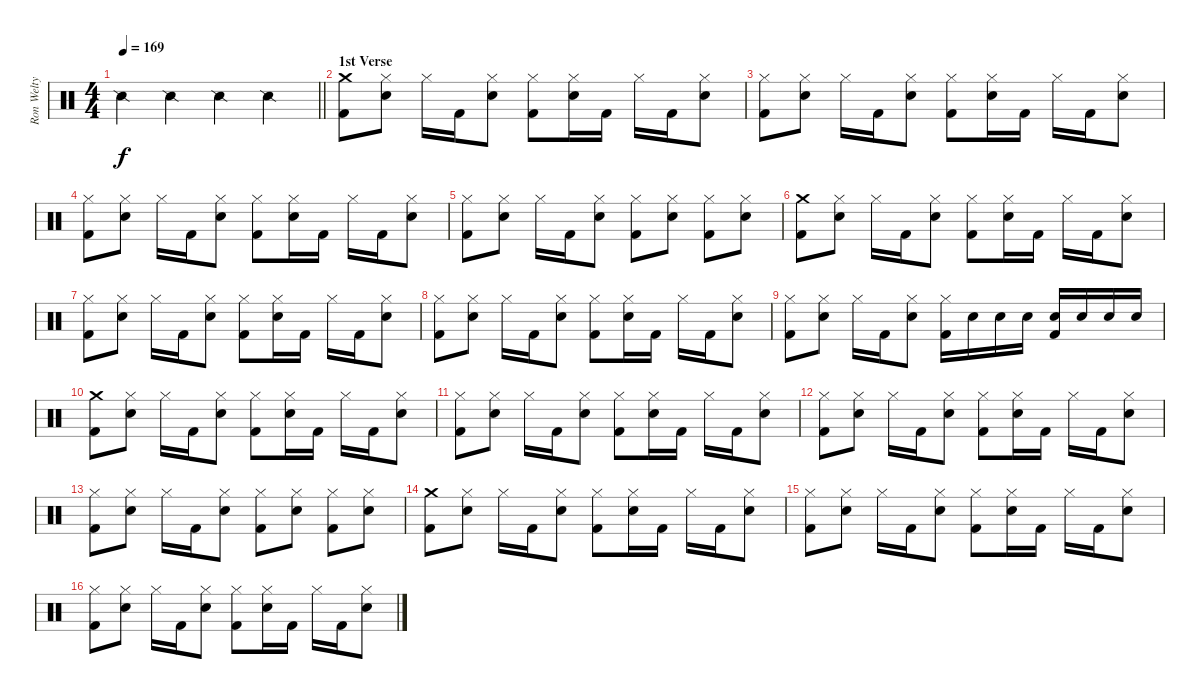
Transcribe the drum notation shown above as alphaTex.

\track ("Ron Welty - Drums" "Ron Welty ") {instrument percussion}
\staff {score}
\articulation defaults
\ts (4 4)
\tempo 169
\clef neutral
\barLineRight lightlight
\ks c "Snare (side stick) 2".4{dy f} "Snare (side stick) 2".4 "Snare (side stick) 2".4 "Snare (side stick) 2".4
|
\section ("" "1st Verse")
("Crash medium (hit)" "Kick (hit) 2").8 ("Hi-Hat (closed)" "Electric Snare (hit)").8 "Hi-Hat (closed)".16 "Kick (hit) 2".16 ("Hi-Hat (closed)" "Electric Snare (hit)").8 ("Hi-Hat (closed)" "Kick (hit) 2").8 ("Hi-Hat (closed)" "Electric Snare (hit)").16 "Kick (hit) 2".16 "Hi-Hat (closed)".16 "Kick (hit) 2".16 ("Hi-Hat (closed)" "Electric Snare (hit)").8 |
("Hi-Hat (closed)" "Kick (hit) 2").8 ("Hi-Hat (closed)" "Electric Snare (hit)").8 "Hi-Hat (closed)".16 "Kick (hit) 2".16 ("Hi-Hat (closed)" "Electric Snare (hit)").8 ("Hi-Hat (closed)" "Kick (hit) 2").8 ("Hi-Hat (closed)" "Electric Snare (hit)").16 "Kick (hit) 2".16 "Hi-Hat (closed)".16 "Kick (hit) 2".16 ("Hi-Hat (closed)" "Electric Snare (hit)").8 |
("Hi-Hat (closed)" "Kick (hit) 2").8 ("Hi-Hat (closed)" "Electric Snare (hit)").8 "Hi-Hat (closed)".16 "Kick (hit) 2".16 ("Hi-Hat (closed)" "Electric Snare (hit)").8 ("Hi-Hat (closed)" "Kick (hit) 2").8 ("Hi-Hat (closed)" "Electric Snare (hit)").16 "Kick (hit) 2".16 "Hi-Hat (closed)".16 "Kick (hit) 2".16 ("Hi-Hat (closed)" "Electric Snare (hit)").8 |
("Hi-Hat (closed)" "Kick (hit) 2").8 ("Hi-Hat (closed)" "Electric Snare (hit)").8 "Hi-Hat (closed)".16 "Kick (hit) 2".16 ("Hi-Hat (closed)" "Electric Snare (hit)").8 ("Hi-Hat (closed)" "Kick (hit) 2").8 ("Hi-Hat (closed)" "Electric Snare (hit)").8 ("Hi-Hat (closed)" "Kick (hit) 2").8 ("Hi-Hat (closed)" "Electric Snare (hit)").8 |
("Crash medium (hit)" "Kick (hit) 2").8 ("Hi-Hat (closed)" "Electric Snare (hit)").8 "Hi-Hat (closed)".16 "Kick (hit) 2".16 ("Hi-Hat (closed)" "Electric Snare (hit)").8 ("Hi-Hat (closed)" "Kick (hit) 2").8 ("Hi-Hat (closed)" "Electric Snare (hit)").16 "Kick (hit) 2".16 "Hi-Hat (closed)".16 "Kick (hit) 2".16 ("Hi-Hat (closed)" "Electric Snare (hit)").8 |
("Hi-Hat (closed)" "Kick (hit) 2").8 ("Hi-Hat (closed)" "Electric Snare (hit)").8 "Hi-Hat (closed)".16 "Kick (hit) 2".16 ("Hi-Hat (closed)" "Electric Snare (hit)").8 ("Hi-Hat (closed)" "Kick (hit) 2").8 ("Hi-Hat (closed)" "Electric Snare (hit)").16 "Kick (hit) 2".16 "Hi-Hat (closed)".16 "Kick (hit) 2".16 ("Hi-Hat (closed)" "Electric Snare (hit)").8 |
("Hi-Hat (closed)" "Kick (hit) 2").8 ("Hi-Hat (closed)" "Electric Snare (hit)").8 "Hi-Hat (closed)".16 "Kick (hit) 2".16 ("Hi-Hat (closed)" "Electric Snare (hit)").8 ("Hi-Hat (closed)" "Kick (hit) 2").8 ("Hi-Hat (closed)" "Electric Snare (hit)").16 "Kick (hit) 2".16 "Hi-Hat (closed)".16 "Kick (hit) 2".16 ("Hi-Hat (closed)" "Electric Snare (hit)").8 |
("Hi-Hat (closed)" "Kick (hit) 2").8 ("Hi-Hat (closed)" "Electric Snare (hit)").8 "Hi-Hat (closed)".16 "Kick (hit) 2".16 ("Hi-Hat (closed)" "Electric Snare (hit)").8 ("Hi-Hat (closed)" "Kick (hit) 2").16 "Electric Snare (hit)".16 "Electric Snare (hit)".16 "Electric Snare (hit)".16 ("Electric Snare (hit)" "Kick (hit) 2").16 "Electric Snare (hit)".16 "Electric Snare (hit)".16 "Electric Snare (hit)".16 |
("Crash medium (hit)" "Kick (hit) 2").8 ("Hi-Hat (closed)" "Electric Snare (hit)").8 "Hi-Hat (closed)".16 "Kick (hit) 2".16 ("Hi-Hat (closed)" "Electric Snare (hit)").8 ("Hi-Hat (closed)" "Kick (hit) 2").8 ("Hi-Hat (closed)" "Electric Snare (hit)").16 "Kick (hit) 2".16 "Hi-Hat (closed)".16 "Kick (hit) 2".16 ("Hi-Hat (closed)" "Electric Snare (hit)").8 |
("Hi-Hat (closed)" "Kick (hit) 2").8 ("Hi-Hat (closed)" "Electric Snare (hit)").8 "Hi-Hat (closed)".16 "Kick (hit) 2".16 ("Hi-Hat (closed)" "Electric Snare (hit)").8 ("Hi-Hat (closed)" "Kick (hit) 2").8 ("Hi-Hat (closed)" "Electric Snare (hit)").16 "Kick (hit) 2".16 "Hi-Hat (closed)".16 "Kick (hit) 2".16 ("Hi-Hat (closed)" "Electric Snare (hit)").8 |
("Hi-Hat (closed)" "Kick (hit) 2").8 ("Hi-Hat (closed)" "Electric Snare (hit)").8 "Hi-Hat (closed)".16 "Kick (hit) 2".16 ("Hi-Hat (closed)" "Electric Snare (hit)").8 ("Hi-Hat (closed)" "Kick (hit) 2").8 ("Hi-Hat (closed)" "Electric Snare (hit)").16 "Kick (hit) 2".16 "Hi-Hat (closed)".16 "Kick (hit) 2".16 ("Hi-Hat (closed)" "Electric Snare (hit)").8 |
("Hi-Hat (closed)" "Kick (hit) 2").8 ("Hi-Hat (closed)" "Electric Snare (hit)").8 "Hi-Hat (closed)".16 "Kick (hit) 2".16 ("Hi-Hat (closed)" "Electric Snare (hit)").8 ("Hi-Hat (closed)" "Kick (hit) 2").8 ("Hi-Hat (closed)" "Electric Snare (hit)").8 ("Hi-Hat (closed)" "Kick (hit) 2").8 ("Hi-Hat (closed)" "Electric Snare (hit)").8 |
("Crash medium (hit)" "Kick (hit) 2").8 ("Hi-Hat (closed)" "Electric Snare (hit)").8 "Hi-Hat (closed)".16 "Kick (hit) 2".16 ("Hi-Hat (closed)" "Electric Snare (hit)").8 ("Hi-Hat (closed)" "Kick (hit) 2").8 ("Hi-Hat (closed)" "Electric Snare (hit)").16 "Kick (hit) 2".16 "Hi-Hat (closed)".16 "Kick (hit) 2".16 ("Hi-Hat (closed)" "Electric Snare (hit)").8 |
("Hi-Hat (closed)" "Kick (hit) 2").8 ("Hi-Hat (closed)" "Electric Snare (hit)").8 "Hi-Hat (closed)".16 "Kick (hit) 2".16 ("Hi-Hat (closed)" "Electric Snare (hit)").8 ("Hi-Hat (closed)" "Kick (hit) 2").8 ("Hi-Hat (closed)" "Electric Snare (hit)").16 "Kick (hit) 2".16 "Hi-Hat (closed)".16 "Kick (hit) 2".16 ("Hi-Hat (closed)" "Electric Snare (hit)").8 |
("Hi-Hat (closed)" "Kick (hit) 2").8 ("Hi-Hat (closed)" "Electric Snare (hit)").8 "Hi-Hat (closed)".16 "Kick (hit) 2".16 ("Hi-Hat (closed)" "Electric Snare (hit)").8 ("Hi-Hat (closed)" "Kick (hit) 2").8 ("Hi-Hat (closed)" "Electric Snare (hit)").16 "Kick (hit) 2".16 "Hi-Hat (closed)".16 "Kick (hit) 2".16 ("Hi-Hat (closed)" "Electric Snare (hit)").8
